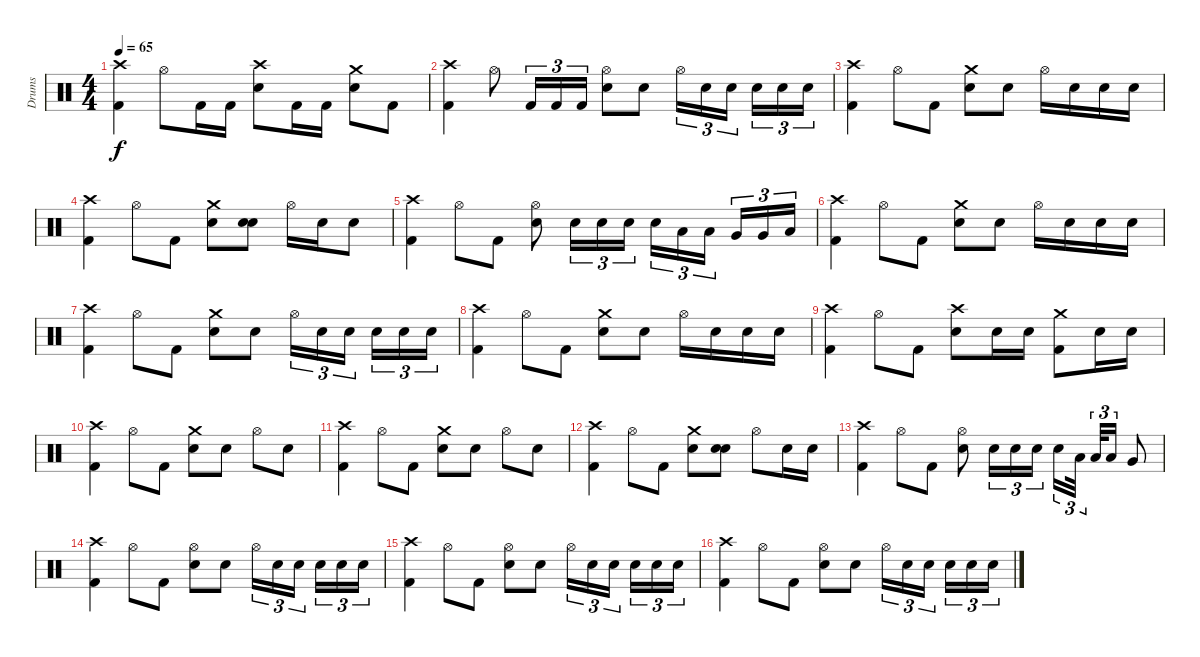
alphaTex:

\track ("Drums" "Drums") {instrument percussion}
\staff {score}
\articulation defaults
\ts (4 4)
\tempo 65
\clef neutral
\ks c
("Crash high (hit)" "Kick (hit) 2").4{dy f} "Hi-Hat (open)".8 "Kick (hit) 2".16 "Kick (hit) 2".16 ("Crash high (hit)" "Electric Snare (hit)").8 "Kick (hit) 2".16 "Kick (hit) 2".16 ("Crash medium (hit)" "Electric Snare (hit)").8 "Kick (hit) 2".8 |
("Crash high (hit)" "Kick (hit) 2").4 "Hi-Hat (open)".8 "Kick (hit) 2".16{tu (3 2)} "Kick (hit) 2".16{tu (3 2)} "Kick (hit) 2".16{tu (3 2)} ("Hi-Hat (open)" "Electric Snare (hit)").8 "Electric Snare (hit)".8 "Hi-Hat (open)".16{tu (3 2)} "Electric Snare (hit)".16{tu (3 2)} "Electric Snare (hit)".16{tu (3 2)} "Electric Snare (hit)".16{tu (3 2)} "Electric Snare (hit)".16{tu (3 2)} "Electric Snare (hit)".16{tu (3 2)} |
("Crash high (hit)" "Kick (hit) 2").4 "Hi-Hat (open)".8 "Kick (hit) 2".8 ("Crash medium (hit)" "Electric Snare (hit)").8 "Electric Snare (hit)".8 "Hi-Hat (open)".16 "Electric Snare (hit)".16 "Electric Snare (hit)".16 "Electric Snare (hit)".16 |
("Crash high (hit)" "Kick (hit) 2").4 "Hi-Hat (open)".8 "Kick (hit) 2".8 ("Crash medium (hit)" "Electric Snare (hit)").8 ("Electric Snare (hit)" "Electric Snare (hit)").8{bu 60} "Hi-Hat (open)".16 "Electric Snare (hit)".16 "Electric Snare (hit)".8 |
("Crash high (hit)" "Kick (hit) 2").4 "Hi-Hat (open)".8 "Kick (hit) 2".8 ("Hi-Hat (open)" "Electric Snare (hit)").8 "Electric Snare (hit)".16{tu (3 2)} "Electric Snare (hit)".16{tu (3 2)} "Electric Snare (hit)".16{tu (3 2)} "Electric Snare (hit)".16{tu (3 2)} "Low Tom (hit)".16{tu (3 2)} "Low Tom (hit)".16{tu (3 2)} "Very Low Tom (hit)".16{tu (3 2)} "Very Low Tom (hit)".16{tu (3 2)} "Low Floor Tom (hit)".16{tu (3 2)} |
("Crash high (hit)" "Kick (hit) 2").4 "Hi-Hat (open)".8 "Kick (hit) 2".8 ("Crash medium (hit)" "Electric Snare (hit)").8 "Electric Snare (hit)".8 "Hi-Hat (open)".16 "Electric Snare (hit)".16 "Electric Snare (hit)".16 "Electric Snare (hit)".16 |
("Crash high (hit)" "Kick (hit) 2").4 "Hi-Hat (open)".8 "Kick (hit) 2".8 ("Crash medium (hit)" "Electric Snare (hit)").8 "Electric Snare (hit)".8 "Hi-Hat (open)".16{tu (3 2)} "Electric Snare (hit)".16{tu (3 2)} "Electric Snare (hit)".16{tu (3 2)} "Electric Snare (hit)".16{tu (3 2)} "Electric Snare (hit)".16{tu (3 2)} "Electric Snare (hit)".16{tu (3 2)} |
("Crash high (hit)" "Kick (hit) 2").4 "Hi-Hat (open)".8 "Kick (hit) 2".8 ("Crash medium (hit)" "Electric Snare (hit)").8 "Electric Snare (hit)".8 "Hi-Hat (open)".16 "Electric Snare (hit)".16 "Electric Snare (hit)".16 "Electric Snare (hit)".16 |
("Crash high (hit)" "Kick (hit) 2").4 "Hi-Hat (open)".8 "Kick (hit) 2".8 ("Crash high (hit)" "Electric Snare (hit)").8 "Electric Snare (hit)".16 "Electric Snare (hit)".16 ("Crash medium (hit)" "Kick (hit) 2").8 "Electric Snare (hit)".16 "Electric Snare (hit)".16 |
("Crash high (hit)" "Kick (hit) 2").4 "Hi-Hat (open)".8 "Kick (hit) 2".8 ("Crash medium (hit)" "Electric Snare (hit)").8 "Electric Snare (hit)".8 "Hi-Hat (open)".8 "Electric Snare (hit)".8 |
("Crash high (hit)" "Kick (hit) 2").4 "Hi-Hat (open)".8 "Kick (hit) 2".8 ("Crash medium (hit)" "Electric Snare (hit)").8 "Electric Snare (hit)".8 "Hi-Hat (open)".8 "Electric Snare (hit)".8 |
("Crash high (hit)" "Kick (hit) 2").4 "Hi-Hat (open)".8 "Kick (hit) 2".8 ("Crash medium (hit)" "Electric Snare (hit)").8 ("Electric Snare (hit)" "Electric Snare (hit)").8{bu 60} "Hi-Hat (open)".8 "Electric Snare (hit)".16 "Electric Snare (hit)".16 |
("Crash high (hit)" "Kick (hit) 2").4 "Hi-Hat (open)".8 "Kick (hit) 2".8 ("Hi-Hat (open)" "Electric Snare (hit)").8 "Electric Snare (hit)".16{tu (3 2)} "Electric Snare (hit)".16{tu (3 2)} "Electric Snare (hit)".16{tu (3 2)} "Electric Snare (hit)".16{tu (3 2)} "Low Tom (hit)".32{tu (3 2)} "Low Tom (hit)".32{tu (3 2)} "Low Tom (hit)".16{tu (3 2)} "Very Low Tom (hit)".8 |
("Crash high (hit)" "Kick (hit) 2").4 "Hi-Hat (open)".8 "Kick (hit) 2".8 ("Hi-Hat (open)" "Electric Snare (hit)").8 "Electric Snare (hit)".8 "Hi-Hat (open)".16{tu (3 2)} "Electric Snare (hit)".16{tu (3 2)} "Electric Snare (hit)".16{tu (3 2)} "Electric Snare (hit)".16{tu (3 2)} "Electric Snare (hit)".16{tu (3 2)} "Electric Snare (hit)".16{tu (3 2)} |
("Crash high (hit)" "Kick (hit) 2").4 "Hi-Hat (open)".8 "Kick (hit) 2".8 ("Hi-Hat (open)" "Electric Snare (hit)").8 "Electric Snare (hit)".8 "Hi-Hat (open)".16{tu (3 2)} "Electric Snare (hit)".16{tu (3 2)} "Electric Snare (hit)".16{tu (3 2)} "Electric Snare (hit)".16{tu (3 2)} "Electric Snare (hit)".16{tu (3 2)} "Electric Snare (hit)".16{tu (3 2)} |
("Crash high (hit)" "Kick (hit) 2").4 "Hi-Hat (open)".8 "Kick (hit) 2".8 ("Hi-Hat (open)" "Electric Snare (hit)").8 "Electric Snare (hit)".8 "Hi-Hat (open)".16{tu (3 2)} "Electric Snare (hit)".16{tu (3 2)} "Electric Snare (hit)".16{tu (3 2)} "Electric Snare (hit)".16{tu (3 2)} "Electric Snare (hit)".16{tu (3 2)} "Electric Snare (hit)".16{tu (3 2)}
